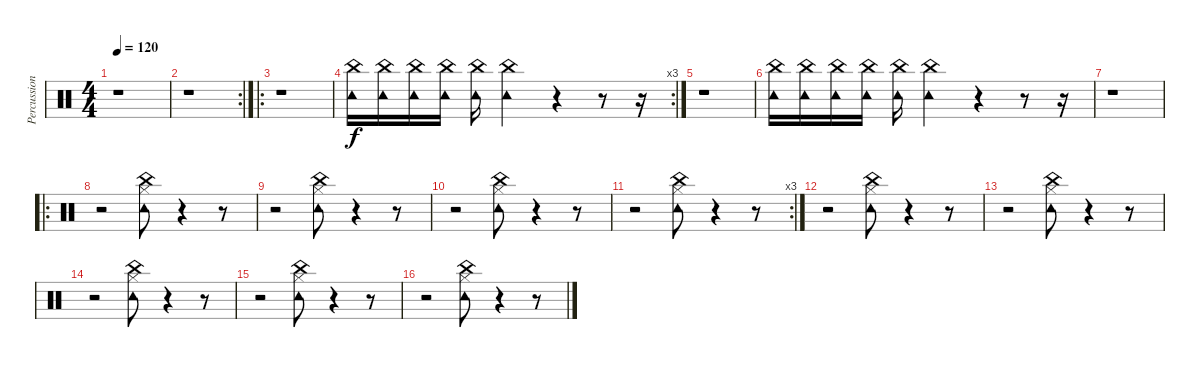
\track ("Percussion " "Percussion") {instrument percussion}
\staff {score}
\articulation defaults
\ts (4 4)
\tempo 120
\clef neutral
\ks c
r.1{dy f} |
\rc 2
r.1 |
\ro
r.1 |
\rc 3
("China (hit)" "Tambourine (hit)").16 ("China (hit)" "Tambourine (hit)").16 ("China (hit)" "Tambourine (hit)").16 ("China (hit)" "Tambourine (hit)").16 ("China (hit)" "Tambourine (hit)").16 ("China (hit)" "Tambourine (hit)").4 r.4 r.8 r.16 |
r.1 |
("China (hit)" "Tambourine (hit)").16 ("China (hit)" "Tambourine (hit)").16 ("China (hit)" "Tambourine (hit)").16 ("China (hit)" "Tambourine (hit)").16 ("China (hit)" "Tambourine (hit)").16 ("China (hit)" "Tambourine (hit)").4 r.4 r.8 r.16 |
r.1 |
\ro
r.2 ("Tambourine (hit)" "China (hit)" "Hi-Hat (closed)").8 r.4 r.8 |
r.2 ("Tambourine (hit)" "China (hit)" "Hi-Hat (closed)").8 r.4 r.8 |
r.2 ("Tambourine (hit)" "China (hit)" "Hi-Hat (closed)").8 r.4 r.8 |
\rc 3
r.2 ("Tambourine (hit)" "China (hit)" "Hi-Hat (closed)").8 r.4 r.8 |
r.2 ("Tambourine (hit)" "China (hit)" "Hi-Hat (closed)").8 r.4 r.8 |
r.2 ("Tambourine (hit)" "China (hit)" "Hi-Hat (closed)").8 r.4 r.8 |
r.2 ("Tambourine (hit)" "China (hit)" "Hi-Hat (closed)").8 r.4 r.8 |
r.2 ("Tambourine (hit)" "China (hit)" "Hi-Hat (closed)").8 r.4 r.8 |
r.2 ("Tambourine (hit)" "China (hit)" "Hi-Hat (closed)").8 r.4 r.8
